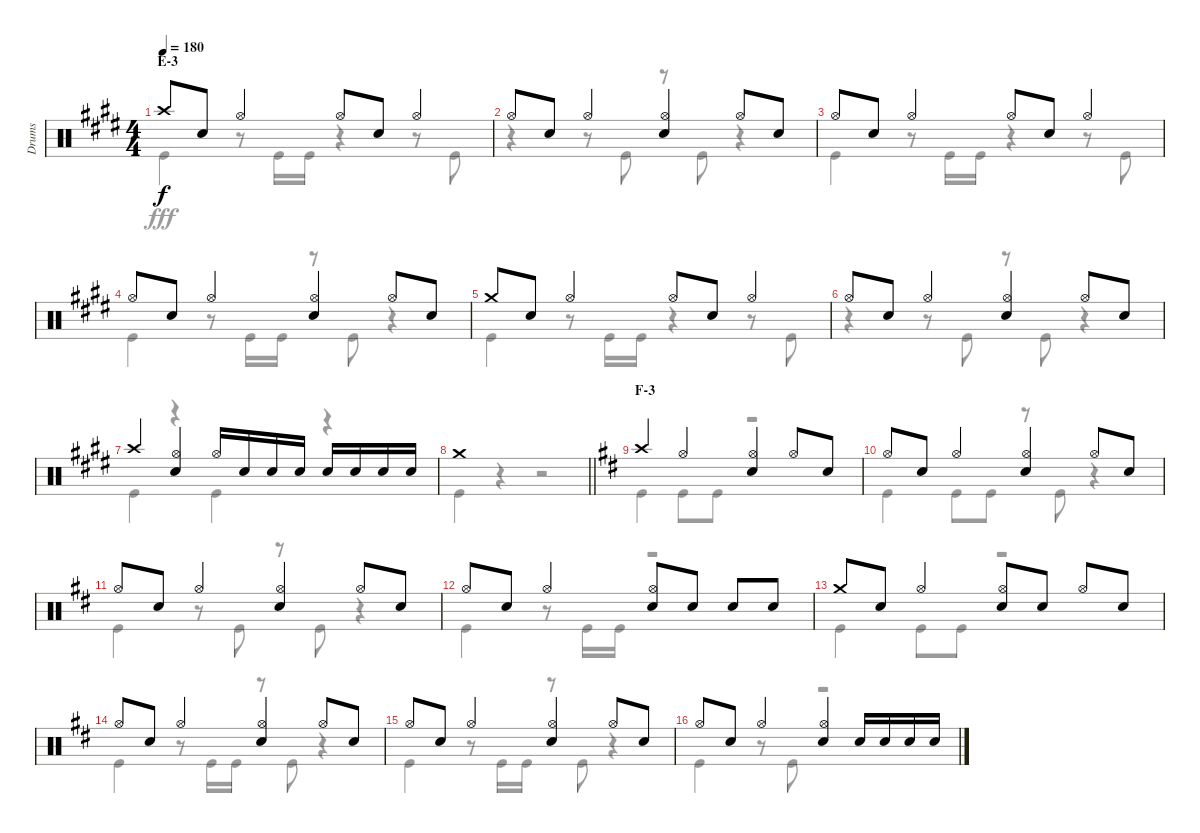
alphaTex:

\track ("Drums" "Drums") {instrument percussion}
\staff {score}
\articulation defaults
\voice
\ts (4 4)
\section ("" "E-3")
\tempo 180
\clef neutral
\ks e "Crash high (hit)".8{dy f} "Snare (hit) 2".8 "Hi-Hat (open)".4 "Hi-Hat (open)".8 "Snare (hit) 2".8 "Hi-Hat (open)".4
|
"Hi-Hat (open)".8 "Snare (hit) 2".8 "Hi-Hat (open)".4 ("Hi-Hat (open)" "Snare (hit) 2").4 "Hi-Hat (open)".8 "Snare (hit) 2".8 |
"Hi-Hat (open)".8 "Snare (hit) 2".8 "Hi-Hat (open)".4 "Hi-Hat (open)".8 "Snare (hit) 2".8 "Hi-Hat (open)".4 |
"Hi-Hat (open)".8 "Snare (hit) 2".8 "Hi-Hat (open)".4 ("Hi-Hat (open)" "Snare (hit) 2").4 "Hi-Hat (open)".8 "Snare (hit) 2".8 |
"Crash medium (hit)".8 "Snare (hit) 2".8 "Hi-Hat (open)".4 "Hi-Hat (open)".8 "Snare (hit) 2".8 "Hi-Hat (open)".4 |
"Hi-Hat (open)".8 "Snare (hit) 2".8 "Hi-Hat (open)".4 ("Hi-Hat (open)" "Snare (hit) 2").4 "Hi-Hat (open)".8 "Snare (hit) 2".8 |
"Crash high (hit)".4 ("Hi-Hat (open)" "Snare (hit) 2").4 "Hi-Hat (open)".16 "Snare (hit) 2".16 "Snare (hit) 2".16 "Snare (hit) 2".16 "Snare (hit) 2".16 "Snare (hit) 2".16 "Snare (hit) 2".16 "Snare (hit) 2".16 |
\barLineRight lightlight "Crash medium (hit)".1
|
\section ("" "F-3")
\ks d "Crash high (hit)".4 "Hi-Hat (open)".4
("Hi-Hat (open)" "Snare (hit) 2").4 "Hi-Hat (open)".8 "Snare (hit) 2".8 |
"Hi-Hat (open)".8 "Snare (hit) 2".8 "Hi-Hat (open)".4 ("Hi-Hat (open)" "Snare (hit) 2").4 "Hi-Hat (open)".8 "Snare (hit) 2".8 |
"Hi-Hat (open)".8 "Snare (hit) 2".8 "Hi-Hat (open)".4 ("Hi-Hat (open)" "Snare (hit) 2").4 "Hi-Hat (open)".8 "Snare (hit) 2".8 |
"Hi-Hat (open)".8 "Snare (hit) 2".8 "Hi-Hat (open)".4 ("Hi-Hat (open)" "Snare (hit) 2").8 "Snare (hit) 2".8 "Snare (hit) 2".8 "Snare (hit) 2".8 |
"Crash medium (hit)".8 "Snare (hit) 2".8 "Hi-Hat (open)".4 ("Hi-Hat (open)" "Snare (hit) 2").8 "Snare (hit) 2".8 "Hi-Hat (open)".8 "Snare (hit) 2".8 |
"Hi-Hat (open)".8 "Snare (hit) 2".8 "Hi-Hat (open)".4 ("Hi-Hat (open)" "Snare (hit) 2").4 "Hi-Hat (open)".8 "Snare (hit) 2".8 |
"Hi-Hat (open)".8 "Snare (hit) 2".8 "Hi-Hat (open)".4 ("Hi-Hat (open)" "Snare (hit) 2").4 "Hi-Hat (open)".8 "Snare (hit) 2".8 |
"Hi-Hat (open)".8 "Snare (hit) 2".8 "Hi-Hat (open)".4 ("Hi-Hat (open)" "Snare (hit) 2").4 "Snare (hit) 2".16 "Snare (hit) 2".16 "Snare (hit) 2".16 "Snare (hit) 2".16
\voice
\clef neutral
\ottava regular
\simile none
\ks e "Kick (hit)".4{dy fff}
r.8 "Kick (hit)".16 "Kick (hit)".16 r.4 r.8 "Kick (hit)".8 |
r.4 r.8 "Kick (hit)".8 r.8 "Kick (hit)".8 r.4 |
"Kick (hit)".4 r.8 "Kick (hit)".16 "Kick (hit)".16 r.4 r.8 "Kick (hit)".8 |
"Kick (hit)".4 r.8 "Kick (hit)".16 "Kick (hit)".16 r.8 "Kick (hit)".8 r.4 |
"Kick (hit)".4 r.8 "Kick (hit)".16 "Kick (hit)".16 r.4 r.8 "Kick (hit)".8 |
r.4 r.8 "Kick (hit)".8 r.8 "Kick (hit)".8 r.4 |
"Kick (hit)".4 r.4 "Kick (hit)".4 r.4 |
\barLineRight lightlight "Kick (hit)".4
r.4 r.2 |
\ks d "Kick (hit)".4 "Kick (hit)".8 "Kick (hit)".8
r.2 |
"Kick (hit)".4 "Kick (hit)".8 "Kick (hit)".8 r.8 "Kick (hit)".8 r.4 |
"Kick (hit)".4 r.8 "Kick (hit)".8 r.8 "Kick (hit)".8 r.4 |
"Kick (hit)".4 r.8 "Kick (hit)".16 "Kick (hit)".16 r.2 |
"Kick (hit)".4 "Kick (hit)".8 "Kick (hit)".8 r.2 |
"Kick (hit)".4 r.8 "Kick (hit)".16 "Kick (hit)".16 r.8 "Kick (hit)".8 r.4 |
"Kick (hit)".4 r.8 "Kick (hit)".16 "Kick (hit)".16 r.8 "Kick (hit)".8 r.4 |
"Kick (hit)".4 r.8 "Kick (hit)".8 r.2
